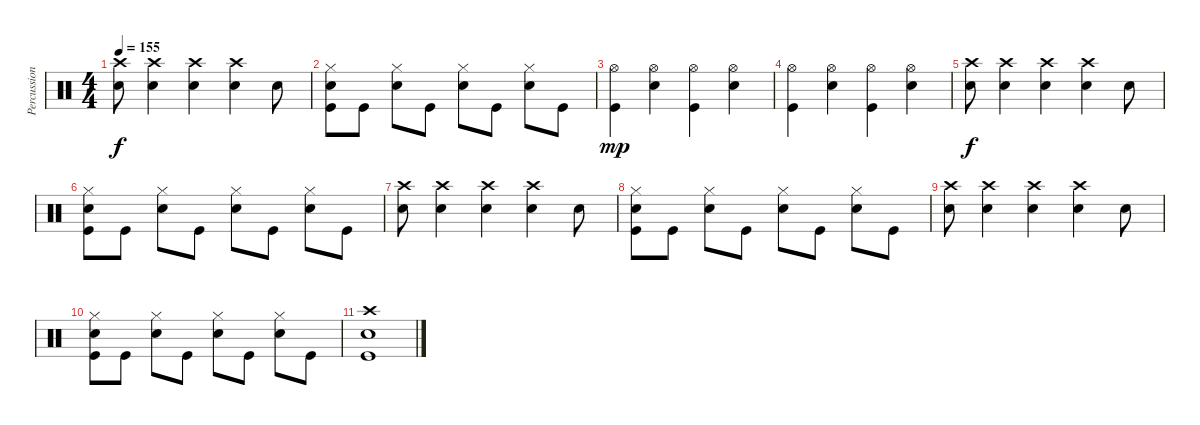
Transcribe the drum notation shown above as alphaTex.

\track ("Percussion" "Percussion") {instrument percussion}
\staff {score}
\articulation defaults
\ts (4 4)
\tempo 155
\clef neutral
\ks c
("Electric Snare (hit)" "Crash high (hit)").8{dy f} ("Electric Snare (hit)" "Crash high (hit)").4 ("Electric Snare (hit)" "Crash high (hit)").4 ("Electric Snare (hit)" "Crash high (hit)").4 "Electric Snare (hit)".8 |
("Kick (hit)" "Electric Snare (hit)" "Hi-Hat (closed)").8 "Kick (hit)".8 ("Electric Snare (hit)" "Hi-Hat (closed)").8 "Kick (hit)".8 ("Electric Snare (hit)" "Hi-Hat (closed)").8 "Kick (hit)".8 ("Electric Snare (hit)" "Hi-Hat (closed)").8 "Kick (hit)".8 |
("Kick (hit)" "Hi-Hat (open)").4{dy mp} ("Electric Snare (hit)" "Hi-Hat (open)").4 ("Kick (hit)" "Hi-Hat (open)").4 ("Electric Snare (hit)" "Hi-Hat (open)").4 |
("Kick (hit)" "Hi-Hat (open)").4 ("Electric Snare (hit)" "Hi-Hat (open)").4 ("Kick (hit)" "Hi-Hat (open)").4 ("Electric Snare (hit)" "Hi-Hat (open)").4 |
("Electric Snare (hit)" "Crash high (hit)").8{dy f} ("Electric Snare (hit)" "Crash high (hit)").4 ("Electric Snare (hit)" "Crash high (hit)").4 ("Electric Snare (hit)" "Crash high (hit)").4 "Electric Snare (hit)".8 |
("Kick (hit)" "Electric Snare (hit)" "Hi-Hat (closed)").8 "Kick (hit)".8 ("Electric Snare (hit)" "Hi-Hat (closed)").8 "Kick (hit)".8 ("Electric Snare (hit)" "Hi-Hat (closed)").8 "Kick (hit)".8 ("Electric Snare (hit)" "Hi-Hat (closed)").8 "Kick (hit)".8 |
("Electric Snare (hit)" "Crash high (hit)").8 ("Electric Snare (hit)" "Crash high (hit)").4 ("Electric Snare (hit)" "Crash high (hit)").4 ("Electric Snare (hit)" "Crash high (hit)").4 "Electric Snare (hit)".8 |
("Kick (hit)" "Electric Snare (hit)" "Hi-Hat (closed)").8 "Kick (hit)".8 ("Electric Snare (hit)" "Hi-Hat (closed)").8 "Kick (hit)".8 ("Electric Snare (hit)" "Hi-Hat (closed)").8 "Kick (hit)".8 ("Electric Snare (hit)" "Hi-Hat (closed)").8 "Kick (hit)".8 |
("Electric Snare (hit)" "Crash high (hit)").8 ("Electric Snare (hit)" "Crash high (hit)").4 ("Electric Snare (hit)" "Crash high (hit)").4 ("Electric Snare (hit)" "Crash high (hit)").4 "Electric Snare (hit)".8 |
("Kick (hit)" "Electric Snare (hit)" "Hi-Hat (closed)").8 "Kick (hit)".8 ("Electric Snare (hit)" "Hi-Hat (closed)").8 "Kick (hit)".8 ("Electric Snare (hit)" "Hi-Hat (closed)").8 "Kick (hit)".8 ("Electric Snare (hit)" "Hi-Hat (closed)").8 "Kick (hit)".8 |
("Kick (hit)" "Electric Snare (hit)" "Crash high (hit)").1
